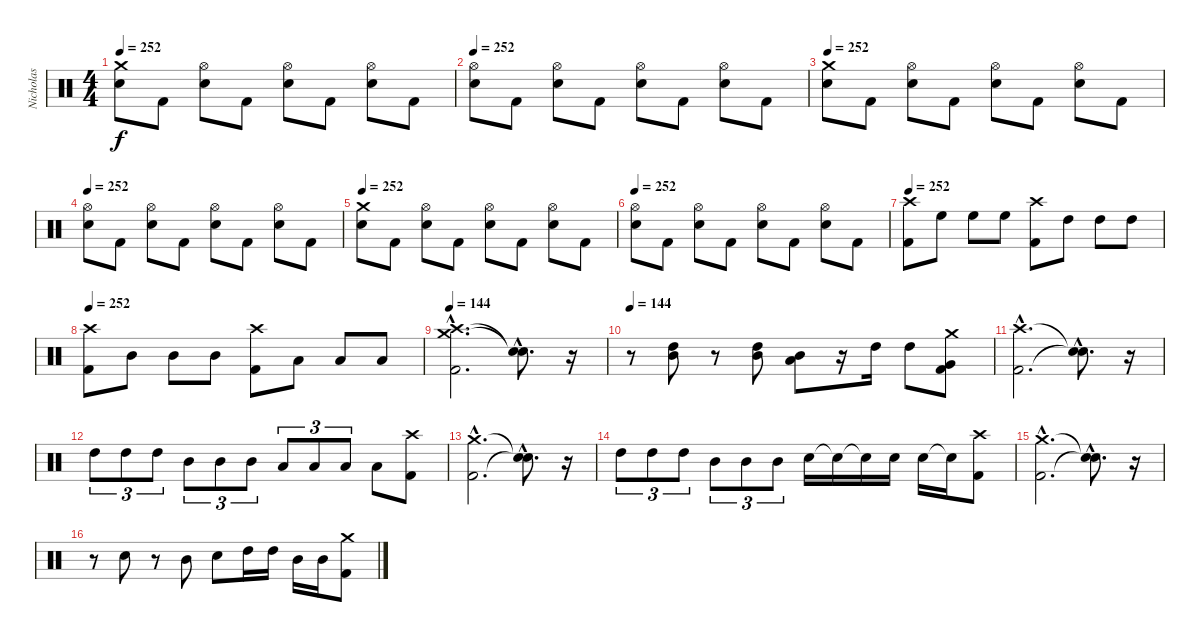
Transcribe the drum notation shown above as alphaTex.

\track ("Nicholas" "Nicholas") {instrument percussion}
\staff {score}
\articulation defaults
\ts (4 4)
\tempo 252
\clef neutral
\ks c
("Crash medium (hit)" "Snare (hit) 2").8{dy f} "Kick (hit) 2".8 ("Hi-Hat (open)" "Snare (hit) 2").8 "Kick (hit) 2".8 ("Hi-Hat (open)" "Snare (hit) 2").8 "Kick (hit) 2".8 ("Hi-Hat (open)" "Snare (hit) 2").8 "Kick (hit) 2".8 |
\tempo 252
("Hi-Hat (open)" "Snare (hit) 2").8 "Kick (hit) 2".8 ("Hi-Hat (open)" "Snare (hit) 2").8 "Kick (hit) 2".8 ("Hi-Hat (open)" "Snare (hit) 2").8 "Kick (hit) 2".8 ("Hi-Hat (open)" "Snare (hit) 2").8 "Kick (hit) 2".8 |
\tempo 252
("Crash medium (hit)" "Snare (hit) 2").8 "Kick (hit) 2".8 ("Hi-Hat (open)" "Snare (hit) 2").8 "Kick (hit) 2".8 ("Hi-Hat (open)" "Snare (hit) 2").8 "Kick (hit) 2".8 ("Hi-Hat (open)" "Snare (hit) 2").8 "Kick (hit) 2".8 |
\tempo 252
("Hi-Hat (open)" "Snare (hit) 2").8 "Kick (hit) 2".8 ("Hi-Hat (open)" "Snare (hit) 2").8 "Kick (hit) 2".8 ("Hi-Hat (open)" "Snare (hit) 2").8 "Kick (hit) 2".8 ("Hi-Hat (open)" "Snare (hit) 2").8 "Kick (hit) 2".8 |
\tempo 252
("Crash medium (hit)" "Snare (hit) 2").8 "Kick (hit) 2".8 ("Hi-Hat (open)" "Snare (hit) 2").8 "Kick (hit) 2".8 ("Hi-Hat (open)" "Snare (hit) 2").8 "Kick (hit) 2".8 ("Hi-Hat (open)" "Snare (hit) 2").8 "Kick (hit) 2".8 |
\tempo 252
("Hi-Hat (open)" "Snare (hit) 2").8 "Kick (hit) 2".8 ("Hi-Hat (open)" "Snare (hit) 2").8 "Kick (hit) 2".8 ("Hi-Hat (open)" "Snare (hit) 2").8 "Kick (hit) 2".8 ("Hi-Hat (open)" "Snare (hit) 2").8 "Kick (hit) 2".8 |
\tempo 252
("Crash high (hit)" "Kick (hit) 2").8 "High Floor Tom (hit)".8 "High Floor Tom (hit)".8 "High Floor Tom (hit)".8 ("Crash high (hit)" "Kick (hit) 2").8 "High Tom (hit)".8 "High Tom (hit)".8 "High Tom (hit)".8 |
\tempo 252
("Crash high (hit)" "Kick (hit) 2").8 "Mid Tom (hit)".8 "Mid Tom (hit)".8 "Mid Tom (hit)".8 ("Crash high (hit)" "Kick (hit) 2").8 "Low Tom (hit)".8 "Low Tom (hit)".8 "Low Tom (hit)".8 |
\tempo 144
("Crash medium (hit)"{hac} "Crash high (hit)"{hac} "Kick (hit) 2"{hac}).2{d} ("Snare (hit)"{hac t} "Snare (hit)"{hac t}).8{d} r.16 |
\tempo 144
r.8 ("High Tom (hit)" "Mid Tom (hit)").8 r.8 ("High Tom (hit)" "Mid Tom (hit)").8 ("Mid Tom (hit)" "Low Tom (hit)").8 r.16 "High Tom (hit)".16 "High Tom (hit)".8 ("Crash medium (hit)" "Very Low Tom (hit)" "Kick (hit) 2").8 |
("Crash high (hit)"{hac} "Kick (hit) 2"{hac}).2{d} ("Snare (hit)"{hac t} "Snare (hit)"{hac t}).8{d} r.16 |
"High Tom (hit)".8{tu (3 2)} "High Tom (hit)".8{tu (3 2)} "High Tom (hit)".8{tu (3 2)} "Mid Tom (hit)".8{tu (3 2)} "Mid Tom (hit)".8{tu (3 2)} "Mid Tom (hit)".8{tu (3 2)} "Low Tom (hit)".8{tu (3 2)} "Low Tom (hit)".8{tu (3 2)} "Low Tom (hit)".8{tu (3 2)} "Low Tom (hit)".8 ("Crash high (hit)" "Kick (hit) 2").8 |
("Crash medium (hit)"{hac} "Kick (hit) 2"{hac}).2{d} ("Snare (hit)"{hac t} "Snare (hit)"{hac t}).8{d} r.16 |
"High Tom (hit)".8{tu (3 2)} "High Tom (hit)".8{tu (3 2)} "High Tom (hit)".8{tu (3 2)} "Mid Tom (hit)".8{tu (3 2)} "Mid Tom (hit)".8{tu (3 2)} "Mid Tom (hit)".8{tu (3 2)} "Snare (hit) 2".16 "Snare (hit) 2"{t}.16 "Snare (hit) 2"{t}.16 "Snare (hit) 2".16 "Snare (hit) 2".16 "Snare (hit)"{t}.16 ("Crash high (hit)" "Kick (hit) 2").8 |
("Crash medium (hit)"{hac} "Kick (hit) 2"{hac}).2{d} ("Snare (hit)"{hac t} "Snare (hit)"{hac t}).8{d} r.16 |
r.8 "Snare (hit) 2".8 r.8 "Mid Tom (hit)".8 "Snare (hit) 2".8 "High Tom (hit)".16 "High Tom (hit)".16 "Mid Tom (hit)".16 "Mid Tom (hit)".16 ("Crash medium (hit)" "Kick (hit) 2").8
